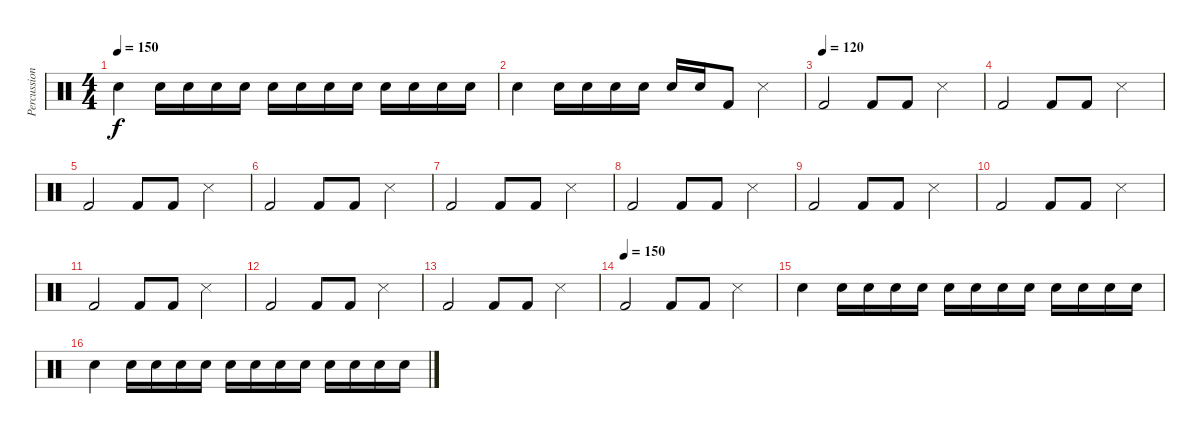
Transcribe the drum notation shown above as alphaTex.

\track ("Percussion" "Percussion") {instrument percussion}
\staff {score}
\articulation defaults
\ts (4 4)
\tempo 150
\clef neutral
\ks c "Snare (hit) 2".4{dy f} "Snare (hit) 2".16 "Snare (hit) 2".16 "Snare (hit) 2".16 "Snare (hit) 2".16 "Snare (hit) 2".16 "Snare (hit) 2".16 "Snare (hit) 2".16 "Snare (hit) 2".16 "Snare (hit) 2".16 "Snare (hit) 2".16 "Snare (hit) 2".16 "Snare (hit) 2".16
|
"Snare (hit) 2".4 "Snare (hit) 2".16 "Snare (hit) 2".16 "Snare (hit) 2".16 "Snare (hit) 2".16 "Snare (hit) 2".16 "Snare (hit) 2".16 "Kick (hit) 2".8 "Snare (side stick) 3".4 |
\tempo (120)
"Kick (hit) 2".2 "Kick (hit) 2".8 "Kick (hit) 2".8 "Snare (side stick) 3".4 |
"Kick (hit) 2".2 "Kick (hit) 2".8 "Kick (hit) 2".8 "Snare (side stick) 3".4 |
"Kick (hit) 2".2 "Kick (hit) 2".8 "Kick (hit) 2".8 "Snare (side stick) 3".4 |
"Kick (hit) 2".2 "Kick (hit) 2".8 "Kick (hit) 2".8 "Snare (side stick) 3".4 |
"Kick (hit) 2".2 "Kick (hit) 2".8 "Kick (hit) 2".8 "Snare (side stick) 3".4 |
"Kick (hit) 2".2 "Kick (hit) 2".8 "Kick (hit) 2".8 "Snare (side stick) 3".4 |
"Kick (hit) 2".2 "Kick (hit) 2".8 "Kick (hit) 2".8 "Snare (side stick) 3".4 |
"Kick (hit) 2".2 "Kick (hit) 2".8 "Kick (hit) 2".8 "Snare (side stick) 3".4 |
"Kick (hit) 2".2 "Kick (hit) 2".8 "Kick (hit) 2".8 "Snare (side stick) 3".4 |
"Kick (hit) 2".2 "Kick (hit) 2".8 "Kick (hit) 2".8 "Snare (side stick) 3".4 |
"Kick (hit) 2".2 "Kick (hit) 2".8 "Kick (hit) 2".8 "Snare (side stick) 3".4 |
\tempo (150)
"Kick (hit) 2".2 "Kick (hit) 2".8 "Kick (hit) 2".8 "Snare (side stick) 3".4 |
"Snare (hit) 2".4 "Snare (hit) 2".16 "Snare (hit) 2".16 "Snare (hit) 2".16 "Snare (hit) 2".16 "Snare (hit) 2".16 "Snare (hit) 2".16 "Snare (hit) 2".16 "Snare (hit) 2".16 "Snare (hit) 2".16 "Snare (hit) 2".16 "Snare (hit) 2".16 "Snare (hit) 2".16 |
"Snare (hit) 2".4 "Snare (hit) 2".16 "Snare (hit) 2".16 "Snare (hit) 2".16 "Snare (hit) 2".16 "Snare (hit) 2".16 "Snare (hit) 2".16 "Snare (hit) 2".16 "Snare (hit) 2".16 "Snare (hit) 2".16 "Snare (hit) 2".16 "Snare (hit) 2".16 "Snare (hit) 2".16
